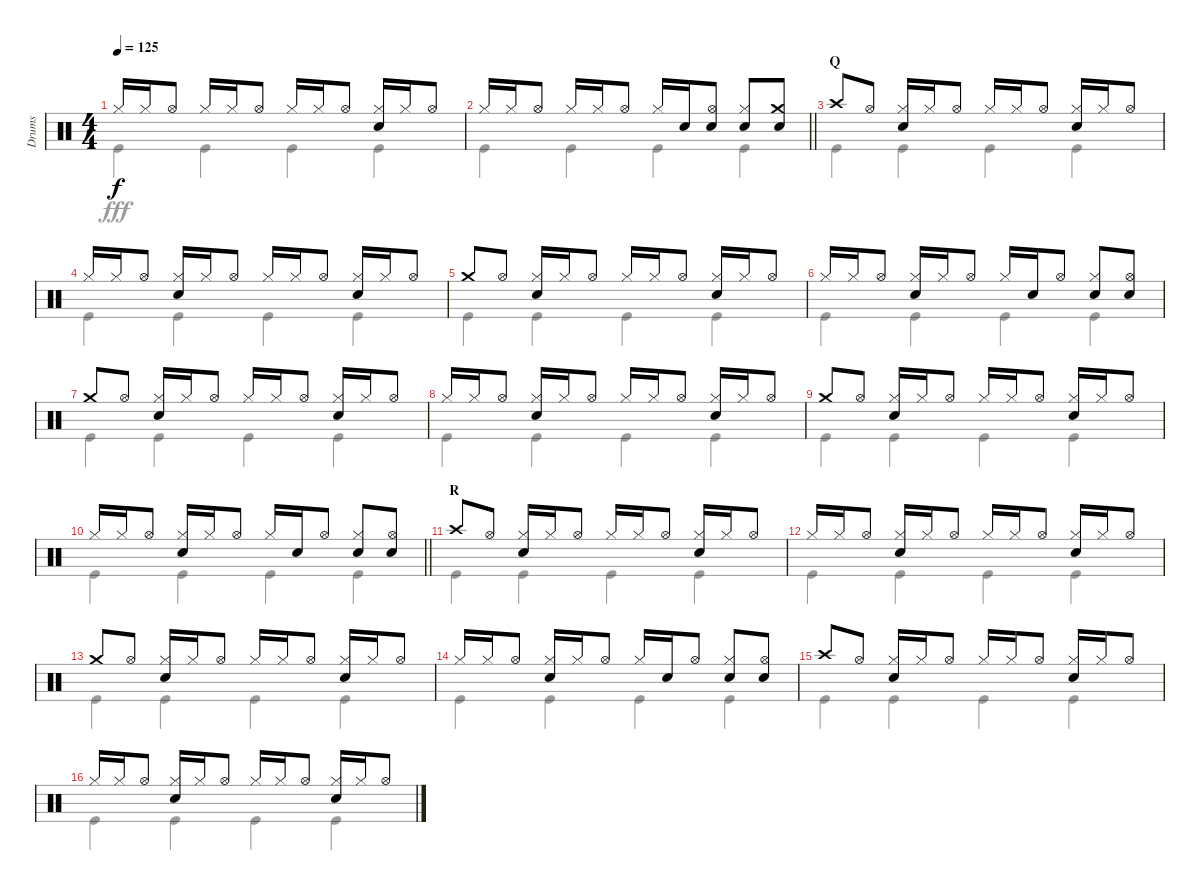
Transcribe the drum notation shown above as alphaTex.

\track ("Drums" "Drums") {instrument percussion}
\staff {score}
\articulation defaults
\voice
\ts (4 4)
\tempo 125
\clef neutral
\ks c "Hi-Hat (closed)".16{dy f} "Hi-Hat (closed)".16 "Hi-Hat (open)".8 "Hi-Hat (closed)".16 "Hi-Hat (closed)".16 "Hi-Hat (open)".8 "Hi-Hat (closed)".16 "Hi-Hat (closed)".16 "Hi-Hat (open)".8
("Hi-Hat (closed)" "Snare (hit) 2").16 "Hi-Hat (closed)".16 "Hi-Hat (open)".8 |
\barLineRight lightlight "Hi-Hat (closed)".16 "Hi-Hat (closed)".16 "Hi-Hat (open)".8 "Hi-Hat (closed)".16 "Hi-Hat (closed)".16 "Hi-Hat (open)".8 "Hi-Hat (closed)".16 "Snare (hit) 2".16
("Hi-Hat (open)" "Snare (hit) 2").8 ("Hi-Hat (closed)" "Snare (hit) 2").8 ("Crash medium (hit)" "Snare (hit) 2").8 |
\section ("" "Q")
"Crash high (hit)".8 "Hi-Hat (open)".8 ("Hi-Hat (closed)" "Snare (hit) 2").16 "Hi-Hat (closed)".16 "Hi-Hat (open)".8 "Hi-Hat (closed)".16 "Hi-Hat (closed)".16 "Hi-Hat (open)".8 ("Hi-Hat (closed)" "Snare (hit) 2").16 "Hi-Hat (closed)".16 "Hi-Hat (open)".8 |
"Hi-Hat (closed)".16 "Hi-Hat (closed)".16 "Hi-Hat (open)".8 ("Hi-Hat (closed)" "Snare (hit) 2").16 "Hi-Hat (closed)".16 "Hi-Hat (open)".8 "Hi-Hat (closed)".16 "Hi-Hat (closed)".16 "Hi-Hat (open)".8 ("Hi-Hat (closed)" "Snare (hit) 2").16 "Hi-Hat (closed)".16 "Hi-Hat (open)".8 |
"Crash medium (hit)".8 "Hi-Hat (open)".8 ("Hi-Hat (closed)" "Snare (hit) 2").16 "Hi-Hat (closed)".16 "Hi-Hat (open)".8 "Hi-Hat (closed)".16 "Hi-Hat (closed)".16 "Hi-Hat (open)".8 ("Hi-Hat (closed)" "Snare (hit) 2").16 "Hi-Hat (closed)".16 "Hi-Hat (open)".8 |
"Hi-Hat (closed)".16 "Hi-Hat (closed)".16 "Hi-Hat (open)".8 ("Hi-Hat (closed)" "Snare (hit) 2").16 "Hi-Hat (closed)".16 "Hi-Hat (open)".8 "Hi-Hat (closed)".16 "Snare (hit) 2".16 "Hi-Hat (open)".8 ("Hi-Hat (closed)" "Snare (hit) 2").8 ("Hi-Hat (open)" "Snare (hit) 2").8 |
"Crash medium (hit)".8 "Hi-Hat (open)".8 ("Hi-Hat (closed)" "Snare (hit) 2").16 "Hi-Hat (closed)".16 "Hi-Hat (open)".8 "Hi-Hat (closed)".16 "Hi-Hat (closed)".16 "Hi-Hat (open)".8 ("Hi-Hat (closed)" "Snare (hit) 2").16 "Hi-Hat (closed)".16 "Hi-Hat (open)".8 |
"Hi-Hat (closed)".16 "Hi-Hat (closed)".16 "Hi-Hat (open)".8 ("Hi-Hat (closed)" "Snare (hit) 2").16 "Hi-Hat (closed)".16 "Hi-Hat (open)".8 "Hi-Hat (closed)".16 "Hi-Hat (closed)".16 "Hi-Hat (open)".8 ("Hi-Hat (closed)" "Snare (hit) 2").16 "Hi-Hat (closed)".16 "Hi-Hat (open)".8 |
"Crash medium (hit)".8 "Hi-Hat (open)".8 ("Hi-Hat (closed)" "Snare (hit) 2").16 "Hi-Hat (closed)".16 "Hi-Hat (open)".8 "Hi-Hat (closed)".16 "Hi-Hat (closed)".16 "Hi-Hat (open)".8 ("Hi-Hat (closed)" "Snare (hit) 2").16 "Hi-Hat (closed)".16 "Hi-Hat (open)".8 |
\barLineRight lightlight "Hi-Hat (closed)".16 "Hi-Hat (closed)".16 "Hi-Hat (open)".8
("Hi-Hat (closed)" "Snare (hit) 2").16 "Hi-Hat (closed)".16 "Hi-Hat (open)".8 "Hi-Hat (closed)".16 "Snare (hit) 2".16 "Hi-Hat (open)".8 ("Hi-Hat (closed)" "Snare (hit) 2").8 ("Hi-Hat (open)" "Snare (hit) 2").8 |
\section ("" "R")
"Crash high (hit)".8 "Hi-Hat (open)".8 ("Hi-Hat (closed)" "Snare (hit) 2").16 "Hi-Hat (closed)".16 "Hi-Hat (open)".8 "Hi-Hat (closed)".16 "Hi-Hat (closed)".16 "Hi-Hat (open)".8 ("Hi-Hat (closed)" "Snare (hit) 2").16 "Hi-Hat (closed)".16 "Hi-Hat (open)".8 |
"Hi-Hat (closed)".16 "Hi-Hat (closed)".16 "Hi-Hat (open)".8 ("Hi-Hat (closed)" "Snare (hit) 2").16 "Hi-Hat (closed)".16 "Hi-Hat (open)".8 "Hi-Hat (closed)".16 "Hi-Hat (closed)".16 "Hi-Hat (open)".8 ("Hi-Hat (closed)" "Snare (hit) 2").16 "Hi-Hat (closed)".16 "Hi-Hat (open)".8 |
"Crash medium (hit)".8 "Hi-Hat (open)".8 ("Hi-Hat (closed)" "Snare (hit) 2").16 "Hi-Hat (closed)".16 "Hi-Hat (open)".8 "Hi-Hat (closed)".16 "Hi-Hat (closed)".16 "Hi-Hat (open)".8 ("Hi-Hat (closed)" "Snare (hit) 2").16 "Hi-Hat (closed)".16 "Hi-Hat (open)".8 |
"Hi-Hat (closed)".16 "Hi-Hat (closed)".16 "Hi-Hat (open)".8 ("Hi-Hat (closed)" "Snare (hit) 2").16 "Hi-Hat (closed)".16 "Hi-Hat (open)".8 "Hi-Hat (closed)".16 "Snare (hit) 2".16 "Hi-Hat (open)".8 ("Hi-Hat (closed)" "Snare (hit) 2").8 ("Hi-Hat (open)" "Snare (hit) 2").8 |
"Crash high (hit)".8 "Hi-Hat (open)".8 ("Hi-Hat (closed)" "Snare (hit) 2").16 "Hi-Hat (closed)".16 "Hi-Hat (open)".8 "Hi-Hat (closed)".16 "Hi-Hat (closed)".16 "Hi-Hat (open)".8 ("Hi-Hat (closed)" "Snare (hit) 2").16 "Hi-Hat (closed)".16 "Hi-Hat (open)".8 |
"Hi-Hat (closed)".16 "Hi-Hat (closed)".16 "Hi-Hat (open)".8 ("Hi-Hat (closed)" "Snare (hit) 2").16 "Hi-Hat (closed)".16 "Hi-Hat (open)".8 "Hi-Hat (closed)".16 "Hi-Hat (closed)".16 "Hi-Hat (open)".8 ("Hi-Hat (closed)" "Snare (hit) 2").16 "Hi-Hat (closed)".16 "Hi-Hat (open)".8
\voice
\clef neutral
\ottava regular
\simile none
\ks c "Kick (hit)".4{dy fff} "Kick (hit)".4 "Kick (hit)".4 "Kick (hit)".4
|
\barLineRight lightlight "Kick (hit)".4 "Kick (hit)".4 "Kick (hit)".4 "Kick (hit)".4
|
"Kick (hit)".4 "Kick (hit)".4 "Kick (hit)".4 "Kick (hit)".4 |
"Kick (hit)".4 "Kick (hit)".4 "Kick (hit)".4 "Kick (hit)".4 |
"Kick (hit)".4 "Kick (hit)".4 "Kick (hit)".4 "Kick (hit)".4 |
"Kick (hit)".4 "Kick (hit)".4 "Kick (hit)".4 "Kick (hit)".4 |
"Kick (hit)".4 "Kick (hit)".4 "Kick (hit)".4 "Kick (hit)".4 |
"Kick (hit)".4 "Kick (hit)".4 "Kick (hit)".4 "Kick (hit)".4 |
"Kick (hit)".4 "Kick (hit)".4 "Kick (hit)".4 "Kick (hit)".4 |
\barLineRight lightlight "Kick (hit)".4 "Kick (hit)".4 "Kick (hit)".4 "Kick (hit)".4
|
"Kick (hit)".4 "Kick (hit)".4 "Kick (hit)".4 "Kick (hit)".4 |
"Kick (hit)".4 "Kick (hit)".4 "Kick (hit)".4 "Kick (hit)".4 |
"Kick (hit)".4 "Kick (hit)".4 "Kick (hit)".4 "Kick (hit)".4 |
"Kick (hit)".4 "Kick (hit)".4 "Kick (hit)".4 "Kick (hit)".4 |
"Kick (hit)".4 "Kick (hit)".4 "Kick (hit)".4 "Kick (hit)".4 |
"Kick (hit)".4 "Kick (hit)".4 "Kick (hit)".4 "Kick (hit)".4
